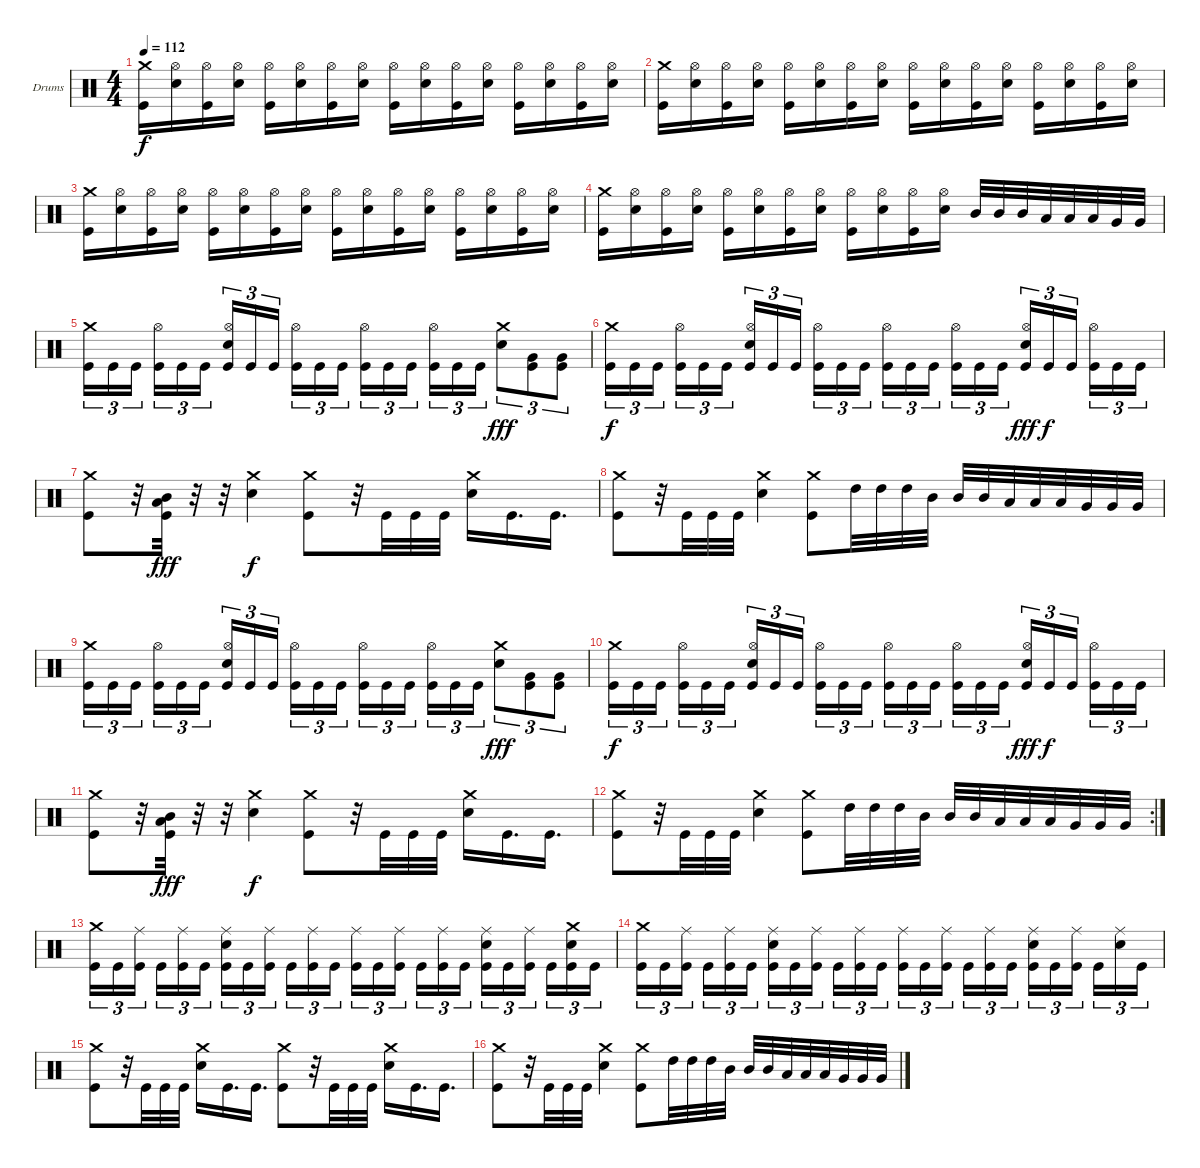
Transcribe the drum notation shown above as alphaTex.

\bracketExtendMode groupsimilarinstruments
\firstSystemTrackNameOrientation horizontal
\otherSystemsTrackNameOrientation horizontal
\track ("Drumkit" "Drums") {instrument percussion}
\staff {score}
\articulation defaults
\ts (4 4)
\tempo 112
\clef neutral
\ks c
("Crash medium (hit)" "Kick (hit)").16{dy f} ("Hi-Hat (open)" "Snare (hit) 2").16 ("Hi-Hat (open)" "Kick (hit)").16 ("Hi-Hat (open)" "Snare (hit) 2").16 ("Hi-Hat (open)" "Kick (hit)").16 ("Hi-Hat (open)" "Snare (hit) 2").16 ("Hi-Hat (open)" "Kick (hit)").16 ("Hi-Hat (open)" "Snare (hit) 2").16 ("Hi-Hat (open)" "Kick (hit)").16 ("Hi-Hat (open)" "Snare (hit) 2").16 ("Hi-Hat (open)" "Kick (hit)").16 ("Hi-Hat (open)" "Snare (hit) 2").16 ("Hi-Hat (open)" "Kick (hit)").16 ("Hi-Hat (open)" "Snare (hit) 2").16 ("Hi-Hat (open)" "Kick (hit)").16 ("Hi-Hat (open)" "Snare (hit) 2").16 |
("Crash medium (hit)" "Kick (hit)").16 ("Hi-Hat (open)" "Snare (hit) 2").16 ("Hi-Hat (open)" "Kick (hit)").16 ("Hi-Hat (open)" "Snare (hit) 2").16 ("Hi-Hat (open)" "Kick (hit)").16 ("Hi-Hat (open)" "Snare (hit) 2").16 ("Hi-Hat (open)" "Kick (hit)").16 ("Hi-Hat (open)" "Snare (hit) 2").16 ("Hi-Hat (open)" "Kick (hit)").16 ("Hi-Hat (open)" "Snare (hit) 2").16 ("Hi-Hat (open)" "Kick (hit)").16 ("Hi-Hat (open)" "Snare (hit) 2").16 ("Hi-Hat (open)" "Kick (hit)").16 ("Hi-Hat (open)" "Snare (hit) 2").16 ("Hi-Hat (open)" "Kick (hit)").16 ("Hi-Hat (open)" "Snare (hit) 2").16 |
("Crash medium (hit)" "Kick (hit)").16 ("Hi-Hat (open)" "Snare (hit) 2").16 ("Hi-Hat (open)" "Kick (hit)").16 ("Hi-Hat (open)" "Snare (hit) 2").16 ("Hi-Hat (open)" "Kick (hit)").16 ("Hi-Hat (open)" "Snare (hit) 2").16 ("Hi-Hat (open)" "Kick (hit)").16 ("Hi-Hat (open)" "Snare (hit) 2").16 ("Hi-Hat (open)" "Kick (hit)").16 ("Hi-Hat (open)" "Snare (hit) 2").16 ("Hi-Hat (open)" "Kick (hit)").16 ("Hi-Hat (open)" "Snare (hit) 2").16 ("Hi-Hat (open)" "Kick (hit)").16 ("Hi-Hat (open)" "Snare (hit) 2").16 ("Hi-Hat (open)" "Kick (hit)").16 ("Hi-Hat (open)" "Snare (hit) 2").16 |
("Kick (hit)" "Crash medium (hit)").16 ("Snare (hit) 2" "Hi-Hat (open)").16 ("Kick (hit)" "Hi-Hat (open)").16 ("Snare (hit) 2" "Hi-Hat (open)").16 ("Kick (hit)" "Hi-Hat (open)").16 ("Snare (hit) 2" "Hi-Hat (open)").16 ("Kick (hit)" "Hi-Hat (open)").16 ("Snare (hit) 2" "Hi-Hat (open)").16 ("Kick (hit)" "Hi-Hat (open)").16 ("Snare (hit) 2" "Hi-Hat (open)").16 ("Kick (hit)" "Hi-Hat (open)").16 ("Snare (hit) 2" "Hi-Hat (open)").16 "Mid Tom (hit)".32 "Mid Tom (hit)".32 "Mid Tom (hit)".32 "Low Tom (hit)".32 "Low Tom (hit)".32 "Low Tom (hit)".32 "Very Low Tom (hit)".32 "Very Low Tom (hit)".32 |
("Kick (hit)" "Crash medium (hit)").16{tu (3 2)} "Kick (hit)".16{tu (3 2)} "Kick (hit)".16{tu (3 2)} ("Kick (hit)" "Hi-Hat (open)").16{tu (3 2)} "Kick (hit)".16{tu (3 2)} "Kick (hit)".16{tu (3 2)} ("Kick (hit)" "Snare (hit) 2" "Hi-Hat (open)").16{tu (3 2)} "Kick (hit)".16{tu (3 2)} "Kick (hit)".16{tu (3 2)} ("Kick (hit)" "Hi-Hat (open)").16{tu (3 2)} "Kick (hit)".16{tu (3 2)} "Kick (hit)".16{tu (3 2)} ("Kick (hit)" "Hi-Hat (open)").16{tu (3 2)} "Kick (hit)".16{tu (3 2)} "Kick (hit)".16{tu (3 2)} ("Kick (hit)" "Hi-Hat (open)").16{tu (3 2)} "Kick (hit)".16{tu (3 2)} "Kick (hit)".16{tu (3 2)} ("Snare (hit) 2" "Crash medium (hit)").8{tu (3 2) dy fff} ("Very Low Tom (hit)" "Kick (hit)").8{tu (3 2)} ("Very Low Tom (hit)" "Kick (hit)").8{tu (3 2)} |
("Kick (hit)" "Crash medium (hit)").16{tu (3 2) dy f} "Kick (hit)".16{tu (3 2)} "Kick (hit)".16{tu (3 2)} ("Kick (hit)" "Hi-Hat (open)").16{tu (3 2)} "Kick (hit)".16{tu (3 2)} "Kick (hit)".16{tu (3 2)} ("Kick (hit)" "Snare (hit) 2" "Hi-Hat (open)").16{tu (3 2)} "Kick (hit)".16{tu (3 2)} "Kick (hit)".16{tu (3 2)} ("Kick (hit)" "Hi-Hat (open)").16{tu (3 2)} "Kick (hit)".16{tu (3 2)} "Kick (hit)".16{tu (3 2)} ("Kick (hit)" "Hi-Hat (open)").16{tu (3 2)} "Kick (hit)".16{tu (3 2)} "Kick (hit)".16{tu (3 2)} ("Kick (hit)" "Hi-Hat (open)").16{tu (3 2)} "Kick (hit)".16{tu (3 2)} "Kick (hit)".16{tu (3 2)} ("Kick (hit)" "Snare (hit) 2" "Hi-Hat (open)").16{tu (3 2) dy fff} "Kick (hit)".16{tu (3 2) dy f} "Kick (hit)".16{tu (3 2)} ("Kick (hit)" "Hi-Hat (open)").16{tu (3 2)} "Kick (hit)".16{tu (3 2)} "Kick (hit)".16{tu (3 2)} |
("Crash medium (hit)" "Kick (hit)").8 r.32 ("Mid Tom (hit)" "Low Tom (hit)" "Kick (hit)").32{dy fff} r.32 r.32 ("Crash medium (hit)" "Snare (hit) 2").4{dy f} ("Crash medium (hit)" "Kick (hit)").8 r.32 "Kick (hit)".32 "Kick (hit)".32 "Kick (hit)".32 ("Crash medium (hit)" "Snare (hit) 2").16 "Kick (hit)".16{d} "Kick (hit)".16{d} |
("Crash medium (hit)" "Kick (hit)").8 r.32 "Kick (hit)".32 "Kick (hit)".32 "Kick (hit)".32 ("Crash medium (hit)" "Snare (hit) 2").4 ("Crash medium (hit)" "Kick (hit)").8 "High Tom (hit)".32 "High Tom (hit)".32 "High Tom (hit)".32 "Mid Tom (hit)".32 "Mid Tom (hit)".32 "Mid Tom (hit)".32 "Low Tom (hit)".32 "Low Tom (hit)".32 "Low Tom (hit)".32 "Very Low Tom (hit)".32 "Very Low Tom (hit)".32 "Very Low Tom (hit)".32 |
("Kick (hit)" "Crash medium (hit)").16{tu (3 2)} "Kick (hit)".16{tu (3 2)} "Kick (hit)".16{tu (3 2)} ("Kick (hit)" "Hi-Hat (open)").16{tu (3 2)} "Kick (hit)".16{tu (3 2)} "Kick (hit)".16{tu (3 2)} ("Kick (hit)" "Snare (hit) 2" "Hi-Hat (open)").16{tu (3 2)} "Kick (hit)".16{tu (3 2)} "Kick (hit)".16{tu (3 2)} ("Kick (hit)" "Hi-Hat (open)").16{tu (3 2)} "Kick (hit)".16{tu (3 2)} "Kick (hit)".16{tu (3 2)} ("Kick (hit)" "Hi-Hat (open)").16{tu (3 2)} "Kick (hit)".16{tu (3 2)} "Kick (hit)".16{tu (3 2)} ("Kick (hit)" "Hi-Hat (open)").16{tu (3 2)} "Kick (hit)".16{tu (3 2)} "Kick (hit)".16{tu (3 2)} ("Snare (hit) 2" "Crash medium (hit)").8{tu (3 2) dy fff} ("Very Low Tom (hit)" "Kick (hit)").8{tu (3 2)} ("Very Low Tom (hit)" "Kick (hit)").8{tu (3 2)} |
("Kick (hit)" "Crash medium (hit)").16{tu (3 2) dy f} "Kick (hit)".16{tu (3 2)} "Kick (hit)".16{tu (3 2)} ("Kick (hit)" "Hi-Hat (open)").16{tu (3 2)} "Kick (hit)".16{tu (3 2)} "Kick (hit)".16{tu (3 2)} ("Kick (hit)" "Snare (hit) 2" "Hi-Hat (open)").16{tu (3 2)} "Kick (hit)".16{tu (3 2)} "Kick (hit)".16{tu (3 2)} ("Kick (hit)" "Hi-Hat (open)").16{tu (3 2)} "Kick (hit)".16{tu (3 2)} "Kick (hit)".16{tu (3 2)} ("Kick (hit)" "Hi-Hat (open)").16{tu (3 2)} "Kick (hit)".16{tu (3 2)} "Kick (hit)".16{tu (3 2)} ("Kick (hit)" "Hi-Hat (open)").16{tu (3 2)} "Kick (hit)".16{tu (3 2)} "Kick (hit)".16{tu (3 2)} ("Kick (hit)" "Snare (hit) 2" "Hi-Hat (open)").16{tu (3 2) dy fff} "Kick (hit)".16{tu (3 2) dy f} "Kick (hit)".16{tu (3 2)} ("Kick (hit)" "Hi-Hat (open)").16{tu (3 2)} "Kick (hit)".16{tu (3 2)} "Kick (hit)".16{tu (3 2)} |
("Crash medium (hit)" "Kick (hit)").8 r.32 ("Mid Tom (hit)" "Low Tom (hit)" "Kick (hit)").32{dy fff} r.32 r.32 ("Crash medium (hit)" "Snare (hit) 2").4{dy f} ("Crash medium (hit)" "Kick (hit)").8 r.32 "Kick (hit)".32 "Kick (hit)".32 "Kick (hit)".32 ("Crash medium (hit)" "Snare (hit) 2").16 "Kick (hit)".16{d} "Kick (hit)".16{d} |
\rc 2
("Crash medium (hit)" "Kick (hit)").8 r.32 "Kick (hit)".32 "Kick (hit)".32 "Kick (hit)".32 ("Crash medium (hit)" "Snare (hit) 2").4 ("Crash medium (hit)" "Kick (hit)").8 "High Tom (hit)".32 "High Tom (hit)".32 "High Tom (hit)".32 "Mid Tom (hit)".32 "Mid Tom (hit)".32 "Mid Tom (hit)".32 "Low Tom (hit)".32 "Low Tom (hit)".32 "Low Tom (hit)".32 "Very Low Tom (hit)".32 "Very Low Tom (hit)".32 "Very Low Tom (hit)".32 |
("Crash medium (hit)" "Kick (hit)").16{tu (3 2)} "Kick (hit)".16{tu (3 2)} ("Ride (middle)" "Kick (hit)").16{tu (3 2)} "Kick (hit)".16{tu (3 2)} ("Ride (middle)" "Kick (hit)").16{tu (3 2)} "Kick (hit)".16{tu (3 2)} ("Ride (middle)" "Kick (hit)" "Snare (hit) 2").16{tu (3 2)} "Kick (hit)".16{tu (3 2)} ("Ride (middle)" "Kick (hit)").16{tu (3 2)} "Kick (hit)".16{tu (3 2)} ("Ride (middle)" "Kick (hit)").16{tu (3 2)} "Kick (hit)".16{tu (3 2)} ("Ride (middle)" "Kick (hit)").16{tu (3 2)} "Kick (hit)".16{tu (3 2)} ("Ride (middle)" "Kick (hit)").16{tu (3 2)} "Kick (hit)".16{tu (3 2)} ("Ride (middle)" "Kick (hit)").16{tu (3 2)} "Kick (hit)".16{tu (3 2)} ("Ride (middle)" "Kick (hit)" "Snare (hit) 2").16{tu (3 2)} "Kick (hit)".16{tu (3 2)} ("Ride (middle)" "Kick (hit)").16{tu (3 2)} "Kick (hit)".16{tu (3 2)} ("Crash medium (hit)" "Snare (hit) 2" "Kick (hit)").16{tu (3 2)} "Kick (hit)".16{tu (3 2)} |
("Crash medium (hit)" "Kick (hit)").16{tu (3 2)} "Kick (hit)".16{tu (3 2)} ("Ride (middle)" "Kick (hit)").16{tu (3 2)} "Kick (hit)".16{tu (3 2)} ("Ride (middle)" "Kick (hit)").16{tu (3 2)} "Kick (hit)".16{tu (3 2)} ("Ride (middle)" "Kick (hit)" "Snare (hit) 2").16{tu (3 2)} "Kick (hit)".16{tu (3 2)} ("Ride (middle)" "Kick (hit)").16{tu (3 2)} "Kick (hit)".16{tu (3 2)} ("Ride (middle)" "Kick (hit)").16{tu (3 2)} "Kick (hit)".16{tu (3 2)} ("Ride (middle)" "Kick (hit)").16{tu (3 2)} "Kick (hit)".16{tu (3 2)} ("Ride (middle)" "Kick (hit)").16{tu (3 2)} "Kick (hit)".16{tu (3 2)} ("Ride (middle)" "Kick (hit)").16{tu (3 2)} "Kick (hit)".16{tu (3 2)} ("Ride (middle)" "Kick (hit)" "Snare (hit) 2").16{tu (3 2)} "Kick (hit)".16{tu (3 2)} ("Ride (middle)" "Kick (hit)").16{tu (3 2)} "Kick (hit)".16{tu (3 2)} ("Ride (middle)" "Snare (hit) 2").16{tu (3 2)} "Kick (hit)".16{tu (3 2)} |
("Crash medium (hit)" "Kick (hit)").8 r.32 "Kick (hit)".32 "Kick (hit)".32 "Kick (hit)".32 ("Crash medium (hit)" "Snare (hit) 2").16 "Kick (hit)".16{d} "Kick (hit)".16{d} ("Crash medium (hit)" "Kick (hit)").8 r.32 "Kick (hit)".32 "Kick (hit)".32 "Kick (hit)".32 ("Crash medium (hit)" "Snare (hit) 2").16 "Kick (hit)".16{d} "Kick (hit)".16{d} |
("Crash medium (hit)" "Kick (hit)").8 r.32 "Kick (hit)".32 "Kick (hit)".32 "Kick (hit)".32 ("Crash medium (hit)" "Snare (hit) 2").4 ("Crash medium (hit)" "Kick (hit)").8 "High Tom (hit)".32 "High Tom (hit)".32 "High Tom (hit)".32 "Mid Tom (hit)".32 "Mid Tom (hit)".32 "Mid Tom (hit)".32 "Low Tom (hit)".32 "Low Tom (hit)".32 "Low Tom (hit)".32 "Very Low Tom (hit)".32 "Very Low Tom (hit)".32 "Very Low Tom (hit)".32
